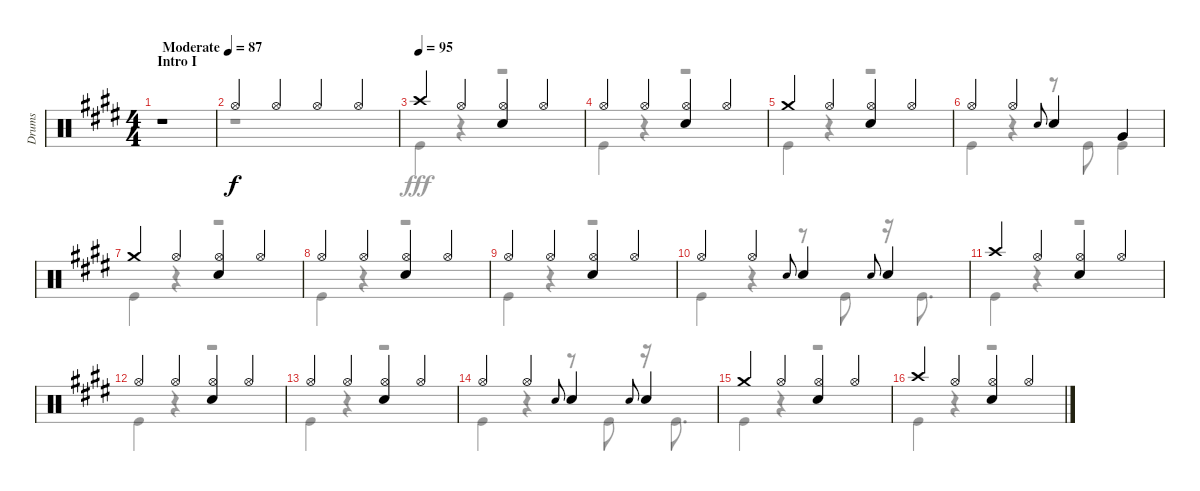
\track ("Drums" "Drums") {instrument percussion}
\staff {score}
\articulation defaults
\voice
\ts (4 4)
\section ("" "Intro I")
\tempo (87 "Moderate")
\clef neutral
\ks e
r.1{dy f} |
"Hi-Hat (open)".4 "Hi-Hat (open)".4 "Hi-Hat (open)".4 "Hi-Hat (open)".4 |
\tempo (95)
"Crash high (hit)".4 "Hi-Hat (open)".4 ("Hi-Hat (open)" "Snare (hit) 2").4 "Hi-Hat (open)".4 |
"Hi-Hat (open)".4 "Hi-Hat (open)".4 ("Hi-Hat (open)" "Snare (hit) 2").4 "Hi-Hat (open)".4 |
"Crash medium (hit)".4 "Hi-Hat (open)".4 ("Hi-Hat (open)" "Snare (hit) 2").4 "Hi-Hat (open)".4 |
"Hi-Hat (open)".4 "Hi-Hat (open)".4 "Snare (hit) 2".8{gr onbeat} "Snare (hit) 2".4 "Very Low Tom (hit)".4 |
"Crash medium (hit)".4 "Hi-Hat (open)".4 ("Hi-Hat (open)" "Snare (hit) 2").4 "Hi-Hat (open)".4 |
"Hi-Hat (open)".4 "Hi-Hat (open)".4 ("Hi-Hat (open)" "Snare (hit) 2").4 "Hi-Hat (open)".4 |
"Hi-Hat (open)".4 "Hi-Hat (open)".4 ("Hi-Hat (open)" "Snare (hit) 2").4 "Hi-Hat (open)".4 |
"Hi-Hat (open)".4 "Hi-Hat (open)".4 "Snare (hit) 2".8{gr onbeat} "Snare (hit) 2".4 "Snare (hit) 2".8{gr onbeat} "Snare (hit) 2".4 |
"Crash high (hit)".4 "Hi-Hat (open)".4 ("Hi-Hat (open)" "Snare (hit) 2").4 "Hi-Hat (open)".4 |
"Hi-Hat (open)".4 "Hi-Hat (open)".4 ("Hi-Hat (open)" "Snare (hit) 2").4 "Hi-Hat (open)".4 |
"Hi-Hat (open)".4 "Hi-Hat (open)".4 ("Hi-Hat (open)" "Snare (hit) 2").4 "Hi-Hat (open)".4 |
"Hi-Hat (open)".4 "Hi-Hat (open)".4 "Snare (hit) 2".8{gr onbeat} "Snare (hit) 2".4 "Snare (hit) 2".8{gr onbeat} "Snare (hit) 2".4 |
"Crash medium (hit)".4 "Hi-Hat (open)".4 ("Hi-Hat (open)" "Snare (hit) 2").4 "Hi-Hat (open)".4 |
"Crash high (hit)".4 "Hi-Hat (open)".4 ("Hi-Hat (open)" "Snare (hit) 2").4 "Hi-Hat (open)".4
\voice
\clef neutral
\ottava regular
\simile none
\ks e
r.1{dy fff} |
r.1 |
"Kick (hit)".4 r.4 r.2 |
"Kick (hit)".4 r.4 r.2 |
"Kick (hit)".4 r.4 r.2 |
"Kick (hit)".4 r.4 r.8 "Kick (hit)".8 "Kick (hit)".4 |
"Kick (hit)".4 r.4 r.2 |
"Kick (hit)".4 r.4 r.2 |
"Kick (hit)".4 r.4 r.2 |
"Kick (hit)".4 r.4 r.8 "Kick (hit)".8 r.16 "Kick (hit)".8{d} |
"Kick (hit)".4 r.4 r.2 |
"Kick (hit)".4 r.4 r.2 |
"Kick (hit)".4 r.4 r.2 |
"Kick (hit)".4 r.4 r.8 "Kick (hit)".8 r.16 "Kick (hit)".8{d} |
"Kick (hit)".4 r.4 r.2 |
"Kick (hit)".4 r.4 r.2
